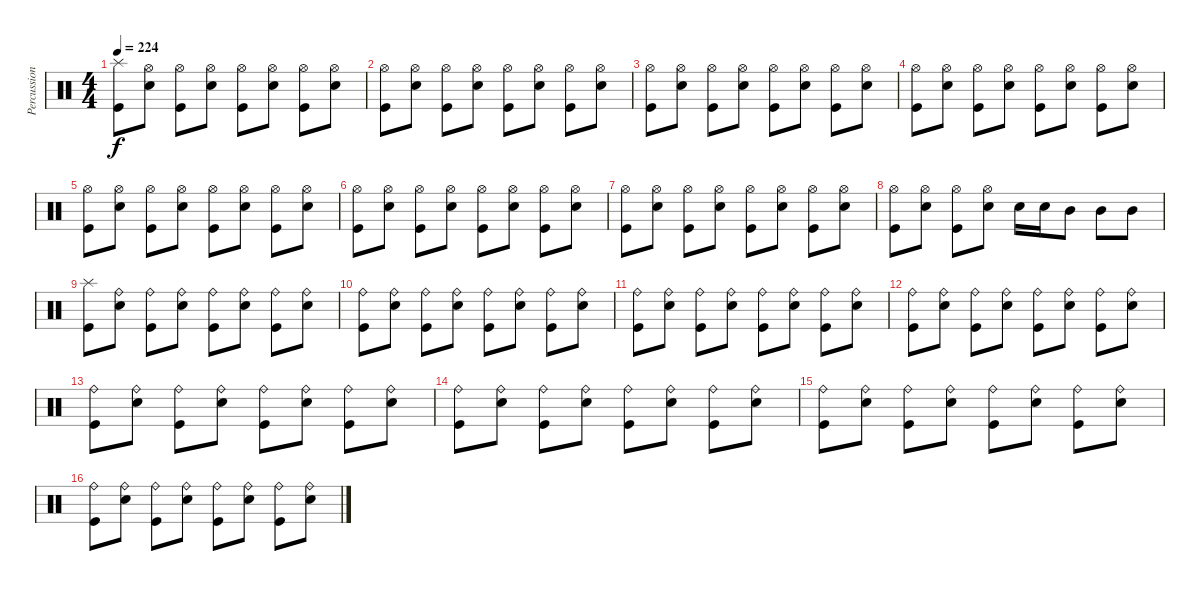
\track ("Percussions" "Percussion") {instrument percussion}
\staff {score}
\articulation defaults
\ts (4 4)
\tempo 224
\clef neutral
\ks c
("Kick (hit)" "Splash (hit)").8{dy f} ("Electric Snare (hit)" "Hi-Hat (open)").8 ("Kick (hit)" "Hi-Hat (open)").8 ("Electric Snare (hit)" "Hi-Hat (open)").8 ("Kick (hit)" "Hi-Hat (open)").8 ("Electric Snare (hit)" "Hi-Hat (open)").8 ("Kick (hit)" "Hi-Hat (open)").8 ("Electric Snare (hit)" "Hi-Hat (open)").8 |
("Kick (hit)" "Hi-Hat (open)").8 ("Electric Snare (hit)" "Hi-Hat (open)").8 ("Kick (hit)" "Hi-Hat (open)").8 ("Electric Snare (hit)" "Hi-Hat (open)").8 ("Kick (hit)" "Hi-Hat (open)").8 ("Electric Snare (hit)" "Hi-Hat (open)").8 ("Kick (hit)" "Hi-Hat (open)").8 ("Electric Snare (hit)" "Hi-Hat (open)").8 |
("Kick (hit)" "Hi-Hat (open)").8 ("Electric Snare (hit)" "Hi-Hat (open)").8 ("Kick (hit)" "Hi-Hat (open)").8 ("Electric Snare (hit)" "Hi-Hat (open)").8 ("Kick (hit)" "Hi-Hat (open)").8 ("Electric Snare (hit)" "Hi-Hat (open)").8 ("Kick (hit)" "Hi-Hat (open)").8 ("Electric Snare (hit)" "Hi-Hat (open)").8 |
("Kick (hit)" "Hi-Hat (open)").8 ("Electric Snare (hit)" "Hi-Hat (open)").8 ("Kick (hit)" "Hi-Hat (open)").8 ("Electric Snare (hit)" "Hi-Hat (open)").8 ("Kick (hit)" "Hi-Hat (open)").8 ("Electric Snare (hit)" "Hi-Hat (open)").8 ("Kick (hit)" "Hi-Hat (open)").8 ("Electric Snare (hit)" "Hi-Hat (open)").8 |
("Kick (hit)" "Hi-Hat (open)").8 ("Electric Snare (hit)" "Hi-Hat (open)").8 ("Kick (hit)" "Hi-Hat (open)").8 ("Electric Snare (hit)" "Hi-Hat (open)").8 ("Kick (hit)" "Hi-Hat (open)").8 ("Electric Snare (hit)" "Hi-Hat (open)").8 ("Kick (hit)" "Hi-Hat (open)").8 ("Electric Snare (hit)" "Hi-Hat (open)").8 |
("Kick (hit)" "Hi-Hat (open)").8 ("Electric Snare (hit)" "Hi-Hat (open)").8 ("Kick (hit)" "Hi-Hat (open)").8 ("Electric Snare (hit)" "Hi-Hat (open)").8 ("Kick (hit)" "Hi-Hat (open)").8 ("Electric Snare (hit)" "Hi-Hat (open)").8 ("Kick (hit)" "Hi-Hat (open)").8 ("Electric Snare (hit)" "Hi-Hat (open)").8 |
("Kick (hit)" "Hi-Hat (open)").8 ("Electric Snare (hit)" "Hi-Hat (open)").8 ("Kick (hit)" "Hi-Hat (open)").8 ("Electric Snare (hit)" "Hi-Hat (open)").8 ("Kick (hit)" "Hi-Hat (open)").8 ("Electric Snare (hit)" "Hi-Hat (open)").8 ("Kick (hit)" "Hi-Hat (open)").8 ("Electric Snare (hit)" "Hi-Hat (open)").8 |
("Kick (hit)" "Hi-Hat (open)").8 ("Electric Snare (hit)" "Hi-Hat (open)").8 ("Kick (hit)" "Hi-Hat (open)").8 ("Electric Snare (hit)" "Hi-Hat (open)").8 "Electric Snare (hit)".16 "Electric Snare (hit)".16 "Mid Tom (hit)".8 "Mid Tom (hit)".8 "Mid Tom (hit)".8 |
("Kick (hit)" "Splash (hit)").8 ("Electric Snare (hit)" "Ride (bell)").8 ("Kick (hit)" "Ride (bell)").8 ("Electric Snare (hit)" "Ride (bell)").8 ("Kick (hit)" "Ride (bell)").8 ("Electric Snare (hit)" "Ride (bell)").8 ("Kick (hit)" "Ride (bell)").8 ("Electric Snare (hit)" "Ride (bell)").8 |
("Kick (hit)" "Ride (bell)").8 ("Electric Snare (hit)" "Ride (bell)").8 ("Kick (hit)" "Ride (bell)").8 ("Electric Snare (hit)" "Ride (bell)").8 ("Kick (hit)" "Ride (bell)").8 ("Electric Snare (hit)" "Ride (bell)").8 ("Kick (hit)" "Ride (bell)").8 ("Electric Snare (hit)" "Ride (bell)").8 |
("Kick (hit)" "Ride (bell)").8 ("Electric Snare (hit)" "Ride (bell)").8 ("Kick (hit)" "Ride (bell)").8 ("Electric Snare (hit)" "Ride (bell)").8 ("Kick (hit)" "Ride (bell)").8 ("Electric Snare (hit)" "Ride (bell)").8 ("Kick (hit)" "Ride (bell)").8 ("Electric Snare (hit)" "Ride (bell)").8 |
("Kick (hit)" "Ride (bell)").8 ("Electric Snare (hit)" "Ride (bell)").8 ("Kick (hit)" "Ride (bell)").8 ("Electric Snare (hit)" "Ride (bell)").8 ("Kick (hit)" "Ride (bell)").8 ("Electric Snare (hit)" "Ride (bell)").8 ("Kick (hit)" "Ride (bell)").8 ("Electric Snare (hit)" "Ride (bell)").8 |
("Kick (hit)" "Ride (bell)").8 ("Electric Snare (hit)" "Ride (bell)").8 ("Kick (hit)" "Ride (bell)").8 ("Electric Snare (hit)" "Ride (bell)").8 ("Kick (hit)" "Ride (bell)").8 ("Electric Snare (hit)" "Ride (bell)").8 ("Kick (hit)" "Ride (bell)").8 ("Electric Snare (hit)" "Ride (bell)").8 |
("Kick (hit)" "Ride (bell)").8 ("Electric Snare (hit)" "Ride (bell)").8 ("Kick (hit)" "Ride (bell)").8 ("Electric Snare (hit)" "Ride (bell)").8 ("Kick (hit)" "Ride (bell)").8 ("Electric Snare (hit)" "Ride (bell)").8 ("Kick (hit)" "Ride (bell)").8 ("Electric Snare (hit)" "Ride (bell)").8 |
("Kick (hit)" "Ride (bell)").8 ("Electric Snare (hit)" "Ride (bell)").8 ("Kick (hit)" "Ride (bell)").8 ("Electric Snare (hit)" "Ride (bell)").8 ("Kick (hit)" "Ride (bell)").8 ("Electric Snare (hit)" "Ride (bell)").8 ("Kick (hit)" "Ride (bell)").8 ("Electric Snare (hit)" "Ride (bell)").8 |
("Kick (hit)" "Ride (bell)").8 ("Electric Snare (hit)" "Ride (bell)").8 ("Kick (hit)" "Ride (bell)").8 ("Electric Snare (hit)" "Ride (bell)").8 ("Kick (hit)" "Ride (bell)").8 ("Electric Snare (hit)" "Ride (bell)").8 ("Kick (hit)" "Ride (bell)").8 ("Electric Snare (hit)" "Ride (bell)").8
